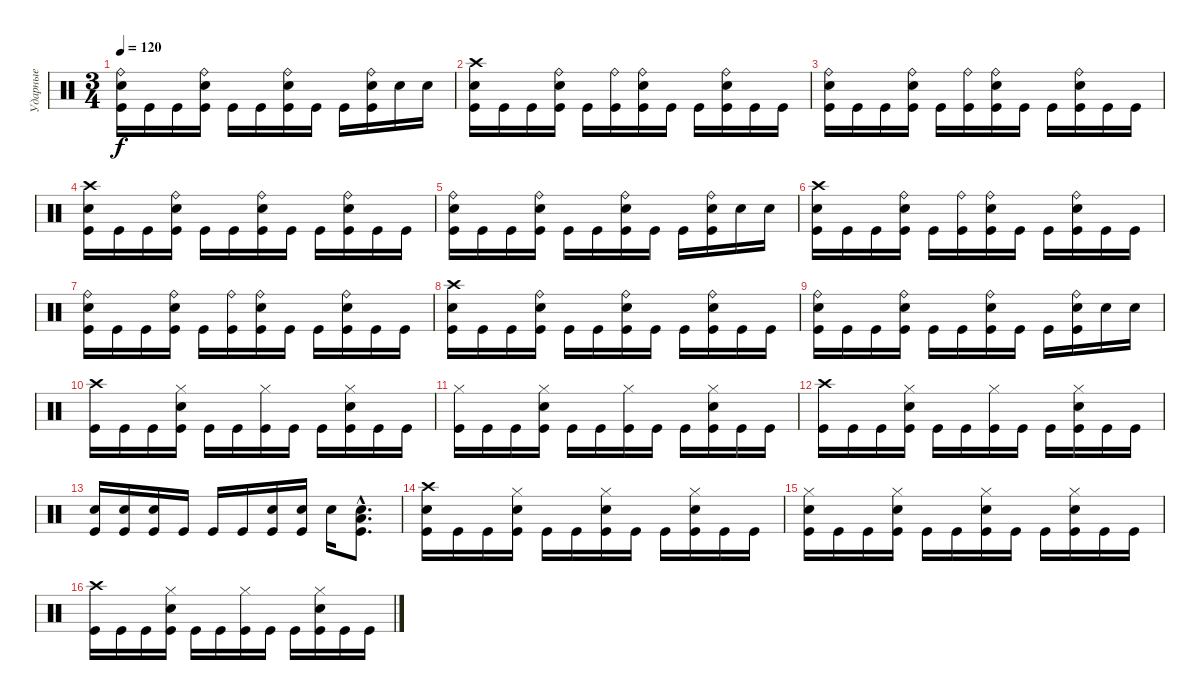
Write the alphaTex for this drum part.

\track ("Ударные" "Ударные") {instrument percussion}
\staff {score}
\articulation defaults
\ts (3 4)
\tempo 120
\clef neutral
\ks c
("Ride (bell)" "Electric Snare (hit)" "Kick (hit)").16{dy f} "Kick (hit)".16 "Kick (hit)".16 ("Ride (bell)" "Electric Snare (hit)" "Kick (hit)").16 "Kick (hit)".16 "Kick (hit)".16 ("Ride (bell)" "Electric Snare (hit)" "Kick (hit)").16 "Kick (hit)".16 "Kick (hit)".16 ("Ride (bell)" "Electric Snare (hit)" "Kick (hit)").16 "Electric Snare (hit)".16 "Electric Snare (hit)".16 |
("Crash high (hit)" "Electric Snare (hit)" "Kick (hit)").16 "Kick (hit)".16 "Kick (hit)".16 ("Ride (bell)" "Electric Snare (hit)" "Kick (hit)").16 "Kick (hit)".16 ("Ride (bell)" "Kick (hit)").16 ("Ride (bell)" "Electric Snare (hit)" "Kick (hit)").16 "Kick (hit)".16 "Kick (hit)".16 ("Ride (bell)" "Electric Snare (hit)" "Kick (hit)").16 "Kick (hit)".16 "Kick (hit)".16 |
("Ride (bell)" "Electric Snare (hit)" "Kick (hit)").16 "Kick (hit)".16 "Kick (hit)".16 ("Ride (bell)" "Electric Snare (hit)" "Kick (hit)").16 "Kick (hit)".16 ("Ride (bell)" "Kick (hit)").16 ("Ride (bell)" "Electric Snare (hit)" "Kick (hit)").16 "Kick (hit)".16 "Kick (hit)".16 ("Ride (bell)" "Electric Snare (hit)" "Kick (hit)").16 "Kick (hit)".16 "Kick (hit)".16 |
("Crash high (hit)" "Electric Snare (hit)" "Kick (hit)").16 "Kick (hit)".16 "Kick (hit)".16 ("Ride (bell)" "Electric Snare (hit)" "Kick (hit)").16 "Kick (hit)".16 "Kick (hit)".16 ("Ride (bell)" "Electric Snare (hit)" "Kick (hit)").16 "Kick (hit)".16 "Kick (hit)".16 ("Ride (bell)" "Electric Snare (hit)" "Kick (hit)").16 "Kick (hit)".16 "Kick (hit)".16 |
("Ride (bell)" "Electric Snare (hit)" "Kick (hit)").16 "Kick (hit)".16 "Kick (hit)".16 ("Ride (bell)" "Electric Snare (hit)" "Kick (hit)").16 "Kick (hit)".16 "Kick (hit)".16 ("Ride (bell)" "Electric Snare (hit)" "Kick (hit)").16 "Kick (hit)".16 "Kick (hit)".16 ("Ride (bell)" "Electric Snare (hit)" "Kick (hit)").16 "Electric Snare (hit)".16 "Electric Snare (hit)".16 |
("Crash high (hit)" "Electric Snare (hit)" "Kick (hit)").16 "Kick (hit)".16 "Kick (hit)".16 ("Ride (bell)" "Electric Snare (hit)" "Kick (hit)").16 "Kick (hit)".16 ("Ride (bell)" "Kick (hit)").16 ("Ride (bell)" "Electric Snare (hit)" "Kick (hit)").16 "Kick (hit)".16 "Kick (hit)".16 ("Ride (bell)" "Electric Snare (hit)" "Kick (hit)").16 "Kick (hit)".16 "Kick (hit)".16 |
("Ride (bell)" "Electric Snare (hit)" "Kick (hit)").16 "Kick (hit)".16 "Kick (hit)".16 ("Ride (bell)" "Electric Snare (hit)" "Kick (hit)").16 "Kick (hit)".16 ("Ride (bell)" "Kick (hit)").16 ("Ride (bell)" "Electric Snare (hit)" "Kick (hit)").16 "Kick (hit)".16 "Kick (hit)".16 ("Ride (bell)" "Electric Snare (hit)" "Kick (hit)").16 "Kick (hit)".16 "Kick (hit)".16 |
("Crash high (hit)" "Electric Snare (hit)" "Kick (hit)").16 "Kick (hit)".16 "Kick (hit)".16 ("Ride (bell)" "Electric Snare (hit)" "Kick (hit)").16 "Kick (hit)".16 "Kick (hit)".16 ("Ride (bell)" "Electric Snare (hit)" "Kick (hit)").16 "Kick (hit)".16 "Kick (hit)".16 ("Ride (bell)" "Electric Snare (hit)" "Kick (hit)").16 "Kick (hit)".16 "Kick (hit)".16 |
("Ride (bell)" "Electric Snare (hit)" "Kick (hit)").16 "Kick (hit)".16 "Kick (hit)".16 ("Ride (bell)" "Electric Snare (hit)" "Kick (hit)").16 "Kick (hit)".16 "Kick (hit)".16 ("Ride (bell)" "Electric Snare (hit)" "Kick (hit)").16 "Kick (hit)".16 "Kick (hit)".16 ("Ride (bell)" "Electric Snare (hit)" "Kick (hit)").16 "Electric Snare (hit)".16 "Electric Snare (hit)".16 |
("Crash high (hit)" "Kick (hit)").16 "Kick (hit)".16 "Kick (hit)".16 ("Hi-Hat (closed)" "Electric Snare (hit)" "Kick (hit)").16 "Kick (hit)".16 "Kick (hit)".16 ("Hi-Hat (closed)" "Kick (hit)").16 "Kick (hit)".16 "Kick (hit)".16 ("Hi-Hat (closed)" "Electric Snare (hit)" "Kick (hit)").16 "Kick (hit)".16 "Kick (hit)".16 |
("Hi-Hat (closed)" "Kick (hit)").16 "Kick (hit)".16 "Kick (hit)".16 ("Hi-Hat (closed)" "Electric Snare (hit)" "Kick (hit)").16 "Kick (hit)".16 "Kick (hit)".16 ("Hi-Hat (closed)" "Kick (hit)").16 "Kick (hit)".16 "Kick (hit)".16 ("Hi-Hat (closed)" "Electric Snare (hit)" "Kick (hit)").16 "Kick (hit)".16 "Kick (hit)".16 |
("Crash high (hit)" "Kick (hit)").16 "Kick (hit)".16 "Kick (hit)".16 ("Hi-Hat (closed)" "Electric Snare (hit)" "Kick (hit)").16 "Kick (hit)".16 "Kick (hit)".16 ("Hi-Hat (closed)" "Kick (hit)").16 "Kick (hit)".16 "Kick (hit)".16 ("Hi-Hat (closed)" "Electric Snare (hit)" "Kick (hit)").16 "Kick (hit)".16 "Kick (hit)".16 |
("Electric Snare (hit)" "Kick (hit)").16 ("Electric Snare (hit)" "Kick (hit)").16 ("Electric Snare (hit)" "Kick (hit)").16 "Kick (hit)".16 "Kick (hit)".16 "Kick (hit)".16 ("Electric Snare (hit)" "Kick (hit)").16 ("Electric Snare (hit)" "Kick (hit)").16 "Electric Snare (hit)".16 ("Electric Snare (hit)"{hac} "Low Tom (hit)"{hac} "Kick (hit)"{hac}).8{d} |
("Crash high (hit)" "Electric Snare (hit)" "Kick (hit)").16 "Kick (hit)".16 "Kick (hit)".16 ("Hi-Hat (closed)" "Electric Snare (hit)" "Kick (hit)").16 "Kick (hit)".16 "Kick (hit)".16 ("Hi-Hat (closed)" "Electric Snare (hit)" "Kick (hit)").16 "Kick (hit)".16 "Kick (hit)".16 ("Hi-Hat (closed)" "Electric Snare (hit)" "Kick (hit)").16 "Kick (hit)".16 "Kick (hit)".16 |
("Hi-Hat (closed)" "Electric Snare (hit)" "Kick (hit)").16 "Kick (hit)".16 "Kick (hit)".16 ("Hi-Hat (closed)" "Electric Snare (hit)" "Kick (hit)").16 "Kick (hit)".16 "Kick (hit)".16 ("Hi-Hat (closed)" "Electric Snare (hit)" "Kick (hit)").16 "Kick (hit)".16 "Kick (hit)".16 ("Hi-Hat (closed)" "Electric Snare (hit)" "Kick (hit)").16 "Kick (hit)".16 "Kick (hit)".16 |
("Crash high (hit)" "Kick (hit)").16 "Kick (hit)".16 "Kick (hit)".16 ("Hi-Hat (closed)" "Electric Snare (hit)" "Kick (hit)").16 "Kick (hit)".16 "Kick (hit)".16 ("Hi-Hat (closed)" "Kick (hit)").16 "Kick (hit)".16 "Kick (hit)".16 ("Hi-Hat (closed)" "Electric Snare (hit)" "Kick (hit)").16 "Kick (hit)".16 "Kick (hit)".16
